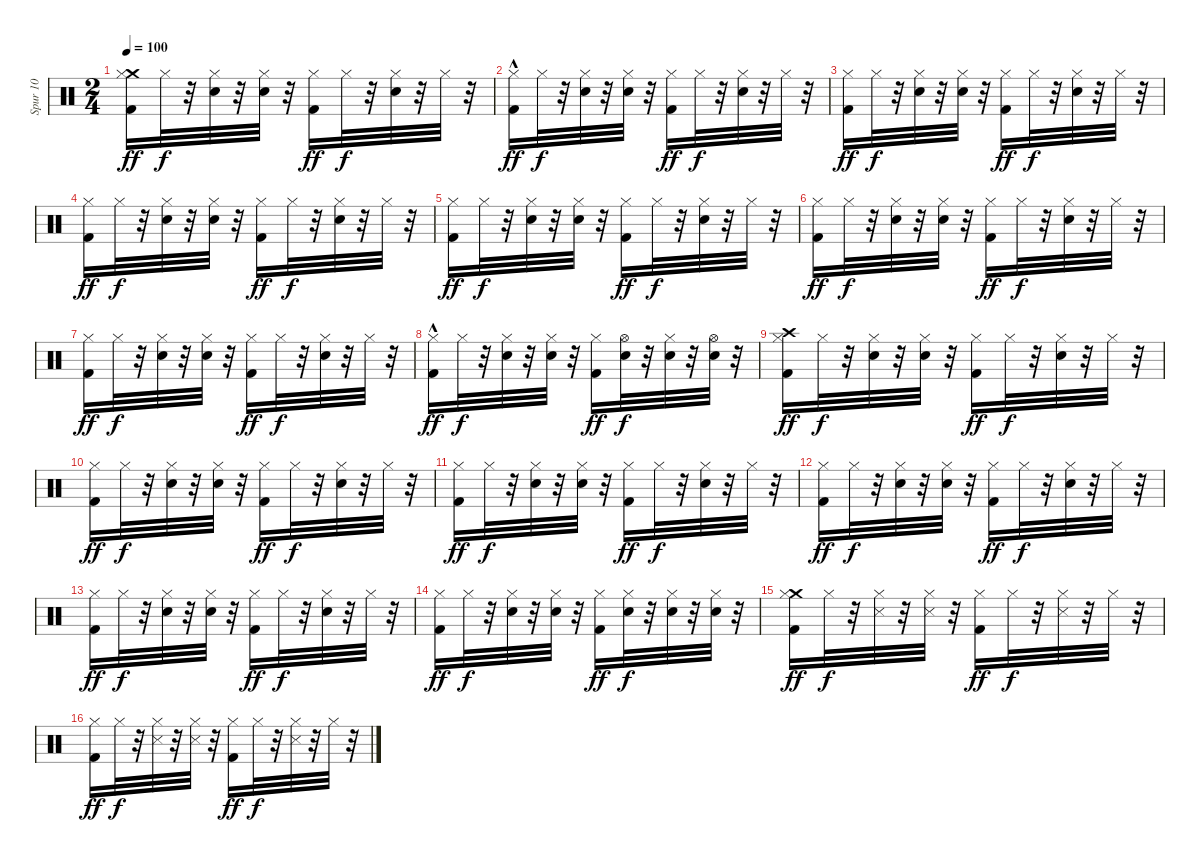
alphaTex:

\track ("Spur 10" "Spur 10") {instrument percussion}
\staff {score}
\articulation defaults
\ts (2 4)
\tempo 100
\clef neutral
\ks c
("Crash medium (hit)" "Kick (hit) 2" "Hi-Hat (closed)").16{dy ff volume 14} "Hi-Hat (closed)".32{dy f} r.32 ("Hi-Hat (closed)" "Electric Snare (hit)").32 r.32 ("Hi-Hat (closed)" "Electric Snare (hit)").32 r.32 ("Hi-Hat (closed)" "Kick (hit) 2").16{dy ff} "Hi-Hat (closed)".32{dy f} r.32 ("Hi-Hat (closed)" "Electric Snare (hit)").32 r.32 "Hi-Hat (closed)".32 r.32 |
("Hi-Hat (closed)" "Kick (hit) 2"{hac}).16{dy ff} "Hi-Hat (closed)".32{dy f} r.32 ("Hi-Hat (closed)" "Electric Snare (hit)").32 r.32 ("Hi-Hat (closed)" "Electric Snare (hit)").32 r.32 ("Hi-Hat (closed)" "Kick (hit) 2").16{dy ff} "Hi-Hat (closed)".32{dy f} r.32 ("Hi-Hat (closed)" "Electric Snare (hit)").32 r.32 "Hi-Hat (closed)".32 r.32 |
("Hi-Hat (closed)" "Kick (hit) 2").16{dy ff} "Hi-Hat (closed)".32{dy f} r.32 ("Hi-Hat (closed)" "Electric Snare (hit)").32 r.32 ("Hi-Hat (closed)" "Electric Snare (hit)").32 r.32 ("Hi-Hat (closed)" "Kick (hit) 2").16{dy ff} "Hi-Hat (closed)".32{dy f} r.32 ("Electric Snare (hit)" "Hi-Hat (closed)").32 r.32 "Hi-Hat (closed)".32 r.32 |
("Hi-Hat (closed)" "Kick (hit) 2").16{dy ff} "Hi-Hat (closed)".32{dy f} r.32 ("Hi-Hat (closed)" "Electric Snare (hit)").32 r.32 ("Hi-Hat (closed)" "Electric Snare (hit)").32 r.32 ("Hi-Hat (closed)" "Kick (hit) 2").16{dy ff} "Hi-Hat (closed)".32{dy f} r.32 ("Electric Snare (hit)" "Hi-Hat (closed)").32 r.32 "Hi-Hat (closed)".32 r.32 |
("Kick (hit) 2" "Hi-Hat (closed)").16{dy ff} "Hi-Hat (closed)".32{dy f} r.32 ("Electric Snare (hit)" "Hi-Hat (closed)").32 r.32 ("Hi-Hat (closed)" "Electric Snare (hit)").32 r.32 ("Hi-Hat (closed)" "Kick (hit) 2").16{dy ff} "Hi-Hat (closed)".32{dy f} r.32 ("Electric Snare (hit)" "Hi-Hat (closed)").32 r.32 "Hi-Hat (closed)".32 r.32 |
("Kick (hit) 2" "Hi-Hat (closed)").16{dy ff} "Hi-Hat (closed)".32{dy f} r.32 ("Electric Snare (hit)" "Hi-Hat (closed)").32 r.32 ("Hi-Hat (closed)" "Electric Snare (hit)").32 r.32 ("Kick (hit) 2" "Hi-Hat (closed)").16{dy ff} "Hi-Hat (closed)".32{dy f} r.32 ("Electric Snare (hit)" "Hi-Hat (closed)").32 r.32 "Hi-Hat (closed)".32 r.32 |
("Hi-Hat (closed)" "Kick (hit) 2").16{dy ff} "Hi-Hat (closed)".32{dy f} r.32 ("Electric Snare (hit)" "Hi-Hat (closed)").32 r.32 ("Hi-Hat (closed)" "Electric Snare (hit)").32 r.32 ("Hi-Hat (closed)" "Kick (hit) 2").16{dy ff} "Hi-Hat (closed)".32{dy f} r.32 ("Electric Snare (hit)" "Hi-Hat (closed)").32 r.32 "Hi-Hat (closed)".32 r.32 |
("Hi-Hat (closed)" "Kick (hit) 2"{hac}).16{dy ff} "Hi-Hat (closed)".32{dy f} r.32 ("Hi-Hat (closed)" "Electric Snare (hit)").32 r.32 ("Hi-Hat (closed)" "Electric Snare (hit)").32 r.32 ("Kick (hit) 2" "Hi-Hat (closed)").16{dy ff} ("Hi-Hat (open)" "Electric Snare (hit)").32{dy f} r.32 ("Hi-Hat (closed)" "Electric Snare (hit)").32 r.32 ("Hi-Hat (open)" "Electric Snare (hit)").32 r.32 |
("Crash high (hit)" "Kick (hit) 2" "Hi-Hat (closed)").16{dy ff volume 14} "Hi-Hat (closed)".32{dy f} r.32 ("Electric Snare (hit)" "Hi-Hat (closed)").32 r.32 ("Electric Snare (hit)" "Hi-Hat (closed)").32 r.32 ("Hi-Hat (closed)" "Kick (hit) 2").16{dy ff} "Hi-Hat (closed)".32{dy f} r.32 ("Electric Snare (hit)" "Hi-Hat (closed)").32 r.32 "Hi-Hat (closed)".32 r.32 |
("Hi-Hat (closed)" "Kick (hit) 2").16{dy ff} "Hi-Hat (closed)".32{dy f} r.32 ("Hi-Hat (closed)" "Electric Snare (hit)").32 r.32 ("Hi-Hat (closed)" "Electric Snare (hit)").32 r.32 ("Kick (hit) 2" "Hi-Hat (closed)").16{dy ff} "Hi-Hat (closed)".32{dy f} r.32 ("Electric Snare (hit)" "Hi-Hat (closed)").32 r.32 "Hi-Hat (closed)".32 r.32 |
("Kick (hit) 2" "Hi-Hat (closed)").16{dy ff} "Hi-Hat (closed)".32{dy f} r.32 ("Hi-Hat (closed)" "Electric Snare (hit)").32 r.32 ("Hi-Hat (closed)" "Electric Snare (hit)").32 r.32 ("Kick (hit) 2" "Hi-Hat (closed)").16{dy ff} "Hi-Hat (closed)".32{dy f} r.32 ("Hi-Hat (closed)" "Electric Snare (hit)").32 r.32 "Hi-Hat (closed)".32 r.32 |
("Hi-Hat (closed)" "Kick (hit) 2").16{dy ff} "Hi-Hat (closed)".32{dy f} r.32 ("Hi-Hat (closed)" "Electric Snare (hit)").32 r.32 ("Electric Snare (hit)" "Hi-Hat (closed)").32 r.32 ("Kick (hit) 2" "Hi-Hat (closed)").16{dy ff} "Hi-Hat (closed)".32{dy f} r.32 ("Electric Snare (hit)" "Hi-Hat (closed)").32 r.32 "Hi-Hat (closed)".32 r.32 |
("Kick (hit) 2" "Hi-Hat (closed)").16{dy ff} "Hi-Hat (closed)".32{dy f} r.32 ("Electric Snare (hit)" "Hi-Hat (closed)").32 r.32 ("Electric Snare (hit)" "Hi-Hat (closed)").32 r.32 ("Kick (hit) 2" "Hi-Hat (closed)").16{dy ff} "Hi-Hat (closed)".32{dy f} r.32 ("Electric Snare (hit)" "Hi-Hat (closed)").32 r.32 "Hi-Hat (closed)".32 r.32 |
("Hi-Hat (closed)" "Kick (hit) 2").16{dy ff} "Hi-Hat (closed)".32{dy f} r.32 ("Electric Snare (hit)" "Hi-Hat (closed)").32 r.32 ("Electric Snare (hit)" "Hi-Hat (closed)").32 r.32 ("Kick (hit) 2" "Hi-Hat (closed)").16{dy ff} ("Hi-Hat (closed)" "Electric Snare (hit)").32{dy f} r.32 ("Hi-Hat (closed)" "Electric Snare (hit)").32 r.32 ("Electric Snare (hit)" "Hi-Hat (closed)").32 r.32 |
("Kick (hit) 2" "Crash medium (hit)" "Hi-Hat (closed)").16{dy ff volume 14} "Hi-Hat (closed)".32{dy f} r.32 ("Snare (side stick) 3" "Hi-Hat (closed)").32 r.32 ("Hi-Hat (closed)" "Snare (side stick) 3").32 r.32 ("Kick (hit) 2" "Hi-Hat (closed)").16{dy ff} "Hi-Hat (closed)".32{dy f} r.32 ("Snare (side stick) 3" "Hi-Hat (closed)").32 r.32 "Hi-Hat (closed)".32 r.32 |
("Kick (hit) 2" "Hi-Hat (closed)").16{dy ff} "Hi-Hat (closed)".32{dy f} r.32 ("Snare (side stick) 3" "Hi-Hat (closed)").32 r.32 ("Hi-Hat (closed)" "Snare (side stick) 3").32 r.32 ("Kick (hit) 2" "Hi-Hat (closed)").16{dy ff} "Hi-Hat (closed)".32{dy f} r.32 ("Snare (side stick) 3" "Hi-Hat (closed)").32 r.32 "Hi-Hat (closed)".32 r.32
